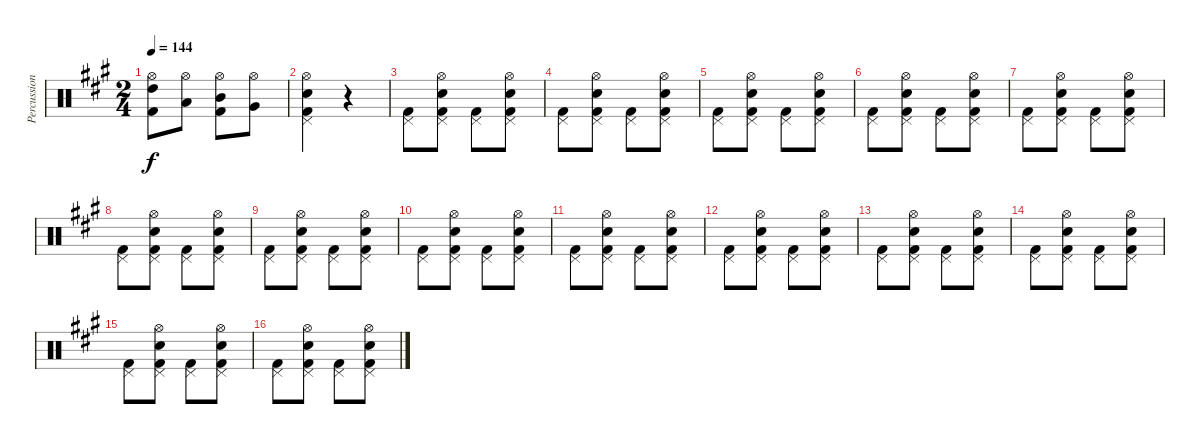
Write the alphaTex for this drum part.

\track ("Percussion" "Percussion") {instrument percussion}
\staff {score}
\articulation defaults
\ts (2 4)
\tempo 144
\clef neutral
\ks a
("Hi-Hat (open)" "High Tom (hit)" "Kick (hit) 2").8{dy f} ("Hi-Hat (open)" "Low Tom (hit)").8 ("Hi-Hat (open)" "Mid Tom (hit)" "Kick (hit) 2").8 ("Hi-Hat (open)" "Very Low Tom (hit)").8 |
("Pedal Hi-Hat (hit)" "Hi-Hat (open)" "Snare (hit) 2" "Kick (hit) 2").4 r.4 |
("Pedal Hi-Hat (hit)" "Kick (hit) 2").8 ("Pedal Hi-Hat (hit)" "Hi-Hat (open)" "Snare (hit) 2" "Kick (hit) 2").8 ("Pedal Hi-Hat (hit)" "Kick (hit) 2").8 ("Pedal Hi-Hat (hit)" "Hi-Hat (open)" "Snare (hit) 2" "Kick (hit) 2").8 |
("Pedal Hi-Hat (hit)" "Kick (hit) 2").8 ("Pedal Hi-Hat (hit)" "Hi-Hat (open)" "Snare (hit) 2" "Kick (hit) 2").8 ("Pedal Hi-Hat (hit)" "Kick (hit) 2").8 ("Pedal Hi-Hat (hit)" "Hi-Hat (open)" "Snare (hit) 2" "Kick (hit) 2").8 |
("Pedal Hi-Hat (hit)" "Kick (hit) 2").8 ("Pedal Hi-Hat (hit)" "Hi-Hat (open)" "Snare (hit) 2" "Kick (hit) 2").8 ("Pedal Hi-Hat (hit)" "Kick (hit) 2").8 ("Pedal Hi-Hat (hit)" "Hi-Hat (open)" "Snare (hit) 2" "Kick (hit) 2").8 |
("Pedal Hi-Hat (hit)" "Kick (hit) 2").8 ("Pedal Hi-Hat (hit)" "Hi-Hat (open)" "Snare (hit) 2" "Kick (hit) 2").8 ("Pedal Hi-Hat (hit)" "Kick (hit) 2").8 ("Pedal Hi-Hat (hit)" "Hi-Hat (open)" "Snare (hit) 2" "Kick (hit) 2").8 |
("Pedal Hi-Hat (hit)" "Kick (hit) 2").8 ("Pedal Hi-Hat (hit)" "Hi-Hat (open)" "Snare (hit) 2" "Kick (hit) 2").8 ("Pedal Hi-Hat (hit)" "Kick (hit) 2").8 ("Pedal Hi-Hat (hit)" "Hi-Hat (open)" "Snare (hit) 2" "Kick (hit) 2").8 |
("Pedal Hi-Hat (hit)" "Kick (hit) 2").8 ("Pedal Hi-Hat (hit)" "Hi-Hat (open)" "Snare (hit) 2" "Kick (hit) 2").8 ("Pedal Hi-Hat (hit)" "Kick (hit) 2").8 ("Pedal Hi-Hat (hit)" "Hi-Hat (open)" "Snare (hit) 2" "Kick (hit) 2").8 |
("Pedal Hi-Hat (hit)" "Kick (hit) 2").8 ("Pedal Hi-Hat (hit)" "Hi-Hat (open)" "Snare (hit) 2" "Kick (hit) 2").8 ("Pedal Hi-Hat (hit)" "Kick (hit) 2").8 ("Pedal Hi-Hat (hit)" "Hi-Hat (open)" "Snare (hit) 2" "Kick (hit) 2").8 |
("Pedal Hi-Hat (hit)" "Kick (hit) 2").8 ("Pedal Hi-Hat (hit)" "Hi-Hat (open)" "Snare (hit) 2" "Kick (hit) 2").8 ("Pedal Hi-Hat (hit)" "Kick (hit) 2").8 ("Pedal Hi-Hat (hit)" "Hi-Hat (open)" "Snare (hit) 2" "Kick (hit) 2").8 |
("Pedal Hi-Hat (hit)" "Kick (hit) 2").8 ("Pedal Hi-Hat (hit)" "Hi-Hat (open)" "Snare (hit) 2" "Kick (hit) 2").8 ("Pedal Hi-Hat (hit)" "Kick (hit) 2").8 ("Pedal Hi-Hat (hit)" "Hi-Hat (open)" "Snare (hit) 2" "Kick (hit) 2").8 |
("Pedal Hi-Hat (hit)" "Kick (hit) 2").8 ("Pedal Hi-Hat (hit)" "Hi-Hat (open)" "Snare (hit) 2" "Kick (hit) 2").8 ("Pedal Hi-Hat (hit)" "Kick (hit) 2").8 ("Pedal Hi-Hat (hit)" "Hi-Hat (open)" "Snare (hit) 2" "Kick (hit) 2").8 |
("Pedal Hi-Hat (hit)" "Kick (hit) 2").8 ("Pedal Hi-Hat (hit)" "Hi-Hat (open)" "Snare (hit) 2" "Kick (hit) 2").8 ("Pedal Hi-Hat (hit)" "Kick (hit) 2").8 ("Pedal Hi-Hat (hit)" "Hi-Hat (open)" "Snare (hit) 2" "Kick (hit) 2").8 |
("Pedal Hi-Hat (hit)" "Kick (hit) 2").8 ("Pedal Hi-Hat (hit)" "Hi-Hat (open)" "Snare (hit) 2" "Kick (hit) 2").8 ("Pedal Hi-Hat (hit)" "Kick (hit) 2").8 ("Pedal Hi-Hat (hit)" "Hi-Hat (open)" "Snare (hit) 2" "Kick (hit) 2").8 |
("Pedal Hi-Hat (hit)" "Kick (hit) 2").8 ("Pedal Hi-Hat (hit)" "Hi-Hat (open)" "Snare (hit) 2" "Kick (hit) 2").8 ("Pedal Hi-Hat (hit)" "Kick (hit) 2").8 ("Pedal Hi-Hat (hit)" "Hi-Hat (open)" "Snare (hit) 2" "Kick (hit) 2").8 |
("Pedal Hi-Hat (hit)" "Kick (hit) 2").8 ("Pedal Hi-Hat (hit)" "Hi-Hat (open)" "Snare (hit) 2" "Kick (hit) 2").8 ("Pedal Hi-Hat (hit)" "Kick (hit) 2").8 ("Pedal Hi-Hat (hit)" "Hi-Hat (open)" "Snare (hit) 2" "Kick (hit) 2").8
